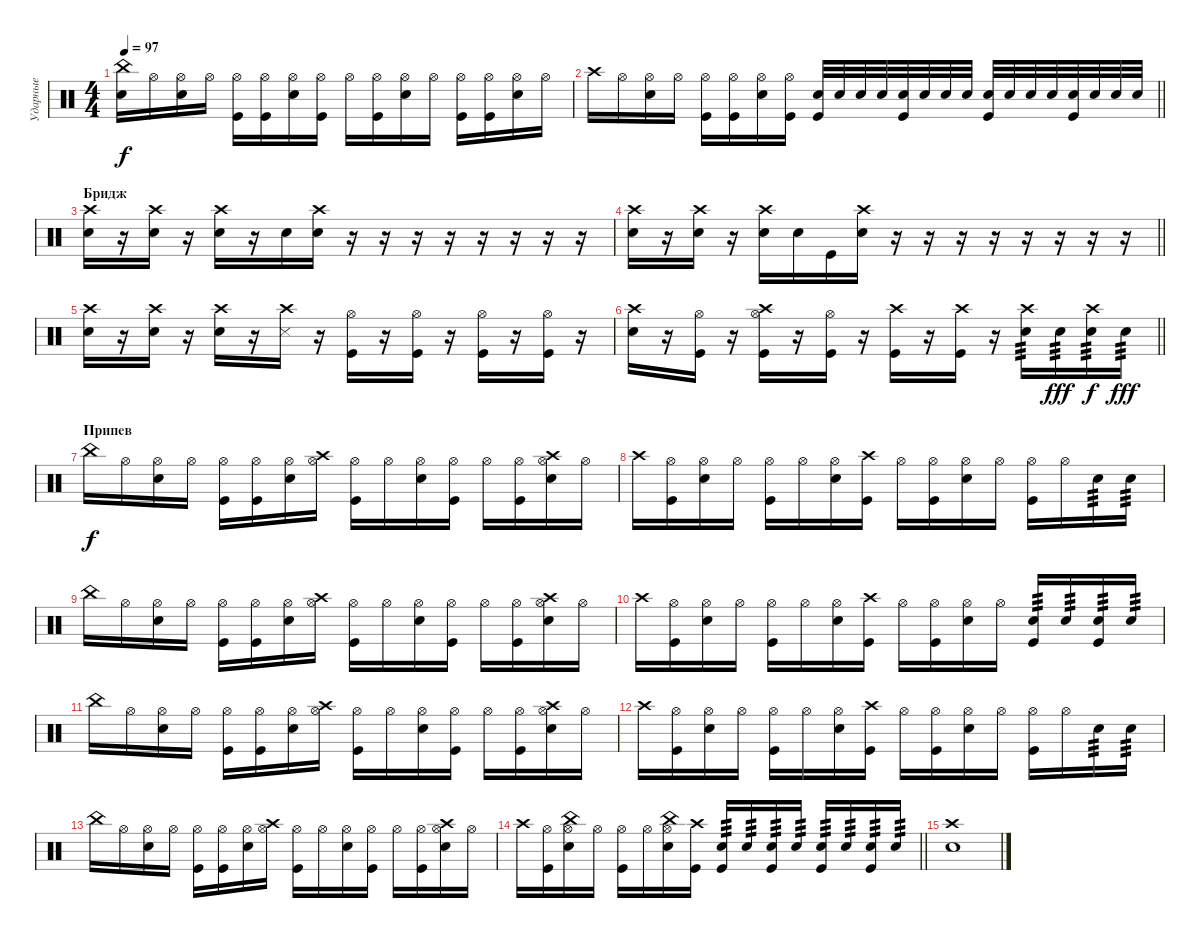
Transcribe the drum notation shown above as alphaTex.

\track ("Ударные" "Ударные") {instrument percussion}
\staff {score}
\articulation defaults
\ts (4 4)
\tempo 97
\clef neutral
\ks c
("China (hit)" "Snare (hit) 2").16{dy f} "Hi-Hat (open)".16 ("Hi-Hat (open)" "Electric Snare (hit)").16 "Hi-Hat (open)".16 ("Hi-Hat (open)" "Kick (hit)").16 ("Hi-Hat (open)" "Kick (hit)").16 ("Hi-Hat (open)" "Electric Snare (hit)").16 ("Hi-Hat (open)" "Kick (hit)").16 "Hi-Hat (open)".16 ("Hi-Hat (open)" "Kick (hit)").16 ("Hi-Hat (open)" "Electric Snare (hit)").16 "Hi-Hat (open)".16 ("Hi-Hat (open)" "Kick (hit)").16 ("Hi-Hat (open)" "Kick (hit)").16 ("Hi-Hat (open)" "Electric Snare (hit)").16 "Hi-Hat (open)".16 |
\barLineRight lightlight "Crash high (hit)".16 "Hi-Hat (open)".16
("Hi-Hat (open)" "Electric Snare (hit)").16 "Hi-Hat (open)".16 ("Hi-Hat (open)" "Kick (hit)").16 ("Hi-Hat (open)" "Kick (hit)").16 ("Hi-Hat (open)" "Electric Snare (hit)").16 ("Hi-Hat (open)" "Kick (hit)").16 ("Electric Snare (hit)" "Kick (hit)").32 "Electric Snare (hit)".32 "Electric Snare (hit)".32 "Electric Snare (hit)".32 ("Electric Snare (hit)" "Kick (hit)").32 "Electric Snare (hit)".32 "Electric Snare (hit)".32 "Electric Snare (hit)".32 ("Electric Snare (hit)" "Kick (hit)").32 "Electric Snare (hit)".32 "Electric Snare (hit)".32 "Electric Snare (hit)".32 ("Electric Snare (hit)" "Kick (hit)").32 "Electric Snare (hit)".32 "Electric Snare (hit)".32 "Electric Snare (hit)".32 |
\section ("" "Бридж")
("Crash high (hit)" "Snare (hit) 2").16 r.16 ("Crash high (hit)" "Snare (hit) 2").16 r.16 ("Crash high (hit)" "Snare (hit) 2").16 r.16 "Snare (hit) 2".16 ("Crash high (hit)" "Snare (hit) 2").16 r.16 r.16 r.16 r.16 r.16 r.16 r.16 r.16 |
\barLineRight lightlight
("Crash high (hit)" "Snare (hit) 2").16 r.16 ("Crash high (hit)" "Snare (hit) 2").16 r.16 ("Crash high (hit)" "Snare (hit) 2").16 "Snare (hit) 2".16 "Kick (hit)".16 ("Crash high (hit)" "Snare (hit) 2").16 r.16 r.16 r.16 r.16 r.16 r.16 r.16 r.16 |
("Crash high (hit)" "Snare (hit) 2").16 r.16 ("Crash high (hit)" "Snare (hit) 2").16 r.16 ("Crash high (hit)" "Snare (hit) 2").16 r.16 ("Crash high (hit)" "Snare (side stick) 3").16 r.16 ("Hi-Hat (open)" "Kick (hit)").16 r.16 ("Hi-Hat (open)" "Kick (hit)").16 r.16 ("Hi-Hat (open)" "Kick (hit)").16 r.16 ("Hi-Hat (open)" "Kick (hit)").16 r.16 |
\barLineRight lightlight
("Crash high (hit)" "Snare (hit) 2").16 r.16 ("Hi-Hat (open)" "Kick (hit)").16 r.16 ("Hi-Hat (open)" "Crash high (hit)" "Kick (hit)").16 r.16 ("Hi-Hat (open)" "Kick (hit)").16 r.16 ("Crash high (hit)" "Kick (hit)").16 r.16 ("Crash high (hit)" "Kick (hit)").16 r.16 ("Crash high (hit)" "Electric Snare (hit)").16{tp 3} "Electric Snare (hit)".16{tp 3 dy fff} ("Crash high (hit)" "Electric Snare (hit)").16{tp 3 dy f} "Electric Snare (hit)".16{tp 3 dy fff} |
\section ("" "Припев")
"China (hit)".16{dy f} "Hi-Hat (open)".16 ("Hi-Hat (open)" "Electric Snare (hit)").16 "Hi-Hat (open)".16 ("Hi-Hat (open)" "Kick (hit)").16 ("Hi-Hat (open)" "Kick (hit)").16 ("Hi-Hat (open)" "Electric Snare (hit)").16 ("Crash high (hit)" "Hi-Hat (open)").16 ("Hi-Hat (open)" "Kick (hit)").16 "Hi-Hat (open)".16 ("Hi-Hat (open)" "Electric Snare (hit)").16 ("Hi-Hat (open)" "Kick (hit)").16 "Hi-Hat (open)".16 ("Hi-Hat (open)" "Kick (hit)").16 ("Crash high (hit)" "Hi-Hat (open)" "Electric Snare (hit)").16 "Hi-Hat (open)".16 |
"Crash high (hit)".16 ("Hi-Hat (open)" "Kick (hit)").16 ("Hi-Hat (open)" "Electric Snare (hit)").16 "Hi-Hat (open)".16 ("Hi-Hat (open)" "Kick (hit)").16 "Hi-Hat (open)".16 ("Hi-Hat (open)" "Electric Snare (hit)").16 ("Crash high (hit)" "Kick (hit)").16 "Hi-Hat (open)".16 ("Hi-Hat (open)" "Kick (hit)").16 ("Hi-Hat (open)" "Electric Snare (hit)").16 "Hi-Hat (open)".16 ("Hi-Hat (open)" "Kick (hit)").16 "Hi-Hat (open)".16 "Electric Snare (hit)".16{tp 3} "Electric Snare (hit)".16{tp 3} |
"China (hit)".16 "Hi-Hat (open)".16 ("Hi-Hat (open)" "Electric Snare (hit)").16 "Hi-Hat (open)".16 ("Hi-Hat (open)" "Kick (hit)").16 ("Hi-Hat (open)" "Kick (hit)").16 ("Hi-Hat (open)" "Electric Snare (hit)").16 ("Crash high (hit)" "Hi-Hat (open)").16 ("Hi-Hat (open)" "Kick (hit)").16 "Hi-Hat (open)".16 ("Hi-Hat (open)" "Electric Snare (hit)").16 ("Hi-Hat (open)" "Kick (hit)").16 "Hi-Hat (open)".16 ("Hi-Hat (open)" "Kick (hit)").16 ("Crash high (hit)" "Hi-Hat (open)" "Electric Snare (hit)").16 "Hi-Hat (open)".16 |
"Crash high (hit)".16 ("Hi-Hat (open)" "Kick (hit)").16 ("Hi-Hat (open)" "Electric Snare (hit)").16 "Hi-Hat (open)".16 ("Hi-Hat (open)" "Kick (hit)").16 "Hi-Hat (open)".16 ("Hi-Hat (open)" "Electric Snare (hit)").16 ("Crash high (hit)" "Kick (hit)").16 "Hi-Hat (open)".16 ("Hi-Hat (open)" "Kick (hit)").16 ("Hi-Hat (open)" "Electric Snare (hit)").16 "Hi-Hat (open)".16 ("Electric Snare (hit)" "Kick (hit)").16{tp 3} "Electric Snare (hit)".16{tp 3} ("Electric Snare (hit)" "Kick (hit)").16{tp 3} "Electric Snare (hit)".16{tp 3} |
"China (hit)".16 "Hi-Hat (open)".16 ("Hi-Hat (open)" "Electric Snare (hit)").16 "Hi-Hat (open)".16 ("Hi-Hat (open)" "Kick (hit)").16 ("Hi-Hat (open)" "Kick (hit)").16 ("Hi-Hat (open)" "Electric Snare (hit)").16 ("Crash high (hit)" "Hi-Hat (open)").16 ("Hi-Hat (open)" "Kick (hit)").16 "Hi-Hat (open)".16 ("Hi-Hat (open)" "Electric Snare (hit)").16 ("Hi-Hat (open)" "Kick (hit)").16 "Hi-Hat (open)".16 ("Hi-Hat (open)" "Kick (hit)").16 ("Crash high (hit)" "Hi-Hat (open)" "Electric Snare (hit)").16 "Hi-Hat (open)".16 |
"Crash high (hit)".16 ("Hi-Hat (open)" "Kick (hit)").16 ("Hi-Hat (open)" "Electric Snare (hit)").16 "Hi-Hat (open)".16 ("Hi-Hat (open)" "Kick (hit)").16 "Hi-Hat (open)".16 ("Hi-Hat (open)" "Electric Snare (hit)").16 ("Crash high (hit)" "Kick (hit)").16 "Hi-Hat (open)".16 ("Hi-Hat (open)" "Kick (hit)").16 ("Hi-Hat (open)" "Electric Snare (hit)").16 "Hi-Hat (open)".16 ("Hi-Hat (open)" "Kick (hit)").16 "Hi-Hat (open)".16 "Electric Snare (hit)".16{tp 3} "Electric Snare (hit)".16{tp 3} |
"China (hit)".16 "Hi-Hat (open)".16 ("Hi-Hat (open)" "Electric Snare (hit)").16 "Hi-Hat (open)".16 ("Hi-Hat (open)" "Kick (hit)").16 ("Hi-Hat (open)" "Kick (hit)").16 ("Hi-Hat (open)" "Electric Snare (hit)").16 ("Crash high (hit)" "Hi-Hat (open)").16 ("Hi-Hat (open)" "Kick (hit)").16 "Hi-Hat (open)".16 ("Hi-Hat (open)" "Electric Snare (hit)").16 ("Hi-Hat (open)" "Kick (hit)").16 "Hi-Hat (open)".16 ("Hi-Hat (open)" "Kick (hit)").16 ("Crash high (hit)" "Hi-Hat (open)" "Electric Snare (hit)").16 "Hi-Hat (open)".16 |
\barLineRight lightlight "Crash high (hit)".16
("Hi-Hat (open)" "Kick (hit)").16 ("China (hit)" "Hi-Hat (open)" "Electric Snare (hit)").16 "Hi-Hat (open)".16 ("Hi-Hat (open)" "Kick (hit)").16 "Hi-Hat (open)".16 ("China (hit)" "Hi-Hat (open)" "Electric Snare (hit)").16 ("Crash high (hit)" "Kick (hit)").16 ("Electric Snare (hit)" "Kick (hit)").16{tp 3} "Electric Snare (hit)".16{tp 3} ("Electric Snare (hit)" "Kick (hit)").16{tp 3} "Electric Snare (hit)".16{tp 3} ("Electric Snare (hit)" "Kick (hit)").16{tp 3} "Electric Snare (hit)".16{tp 3} ("Electric Snare (hit)" "Kick (hit)").16{tp 3} "Electric Snare (hit)".16{tp 3} |
("Crash high (hit)" "Snare (hit) 2").1
